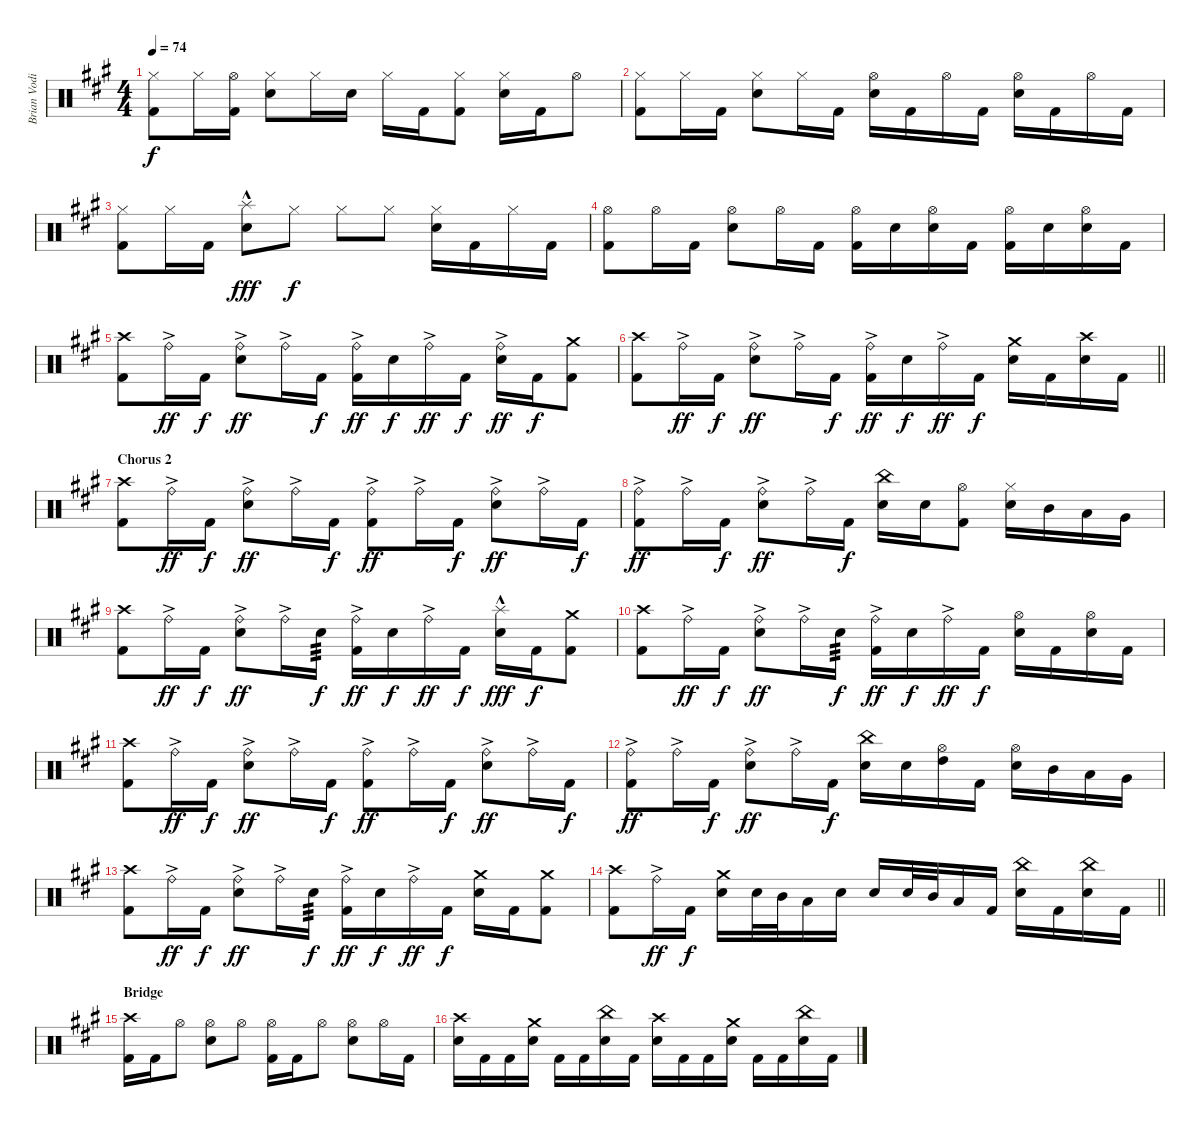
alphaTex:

\track ("Brian Vodinh" "Brian Vodi") {instrument percussion}
\staff {score}
\articulation defaults
\ts (4 4)
\tempo 74
\clef neutral
\ks f#minor
("Hi-Hat (closed)" "Kick (hit) 2").8{dy f} "Hi-Hat (closed)".16 ("Hi-Hat (open)" "Kick (hit) 2").16 ("Hi-Hat (closed)" "Electric Snare (hit)").8 "Hi-Hat (closed)".16 "Electric Snare (hit)".16 "Hi-Hat (closed)".16 "Kick (hit) 2".16 ("Hi-Hat (closed)" "Kick (hit) 2").8 ("Hi-Hat (closed)" "Electric Snare (hit)").16 "Kick (hit) 2".16 "Hi-Hat (open)".8 |
("Hi-Hat (closed)" "Kick (hit) 2").8 "Hi-Hat (closed)".16 "Kick (hit) 2".16 ("Hi-Hat (closed)" "Electric Snare (hit)").8 "Hi-Hat (closed)".16 "Kick (hit) 2".16 ("Hi-Hat (open)" "Electric Snare (hit)").16 "Kick (hit) 2".16 "Hi-Hat (open)".16 "Kick (hit) 2".16 ("Hi-Hat (open)" "Electric Snare (hit)").16 "Kick (hit) 2".16 "Hi-Hat (open)".16 "Kick (hit) 2".16 |
("Hi-Hat (closed)" "Kick (hit) 2").8 "Hi-Hat (closed)".16 "Kick (hit) 2".16 ("Splash (hit)"{hac} "Electric Snare (hit)").8{dy fff} "Hi-Hat (closed)".8{dy f} "Hi-Hat (closed)".8 "Hi-Hat (closed)".8 ("Hi-Hat (closed)" "Electric Snare (hit)").16 "Kick (hit) 2".16 "Hi-Hat (closed)".16 "Kick (hit) 2".16 |
("Hi-Hat (open)" "Kick (hit) 2").8 "Hi-Hat (open)".16 "Kick (hit) 2".16 ("Hi-Hat (open)" "Electric Snare (hit)").8 "Hi-Hat (open)".16 "Kick (hit) 2".16 ("Hi-Hat (open)" "Kick (hit) 2").16 "Electric Snare (hit)".16 ("Hi-Hat (open)" "Electric Snare (hit)").16 "Kick (hit) 2".16 ("Hi-Hat (open)" "Kick (hit) 2").16 "Electric Snare (hit)".16 ("Hi-Hat (open)" "Electric Snare (hit)").16 "Kick (hit) 2".16 |
("Crash high (hit)" "Kick (hit) 2").8 "Ride (bell)"{ac}.16{dy ff} "Kick (hit) 2".16{dy f} ("Ride (bell)"{ac} "Electric Snare (hit)").8{dy ff} "Ride (bell)"{ac}.16 "Kick (hit) 2".16{dy f} ("Ride (bell)"{ac} "Kick (hit) 2").16{dy ff} "Electric Snare (hit)".16{dy f} "Ride (bell)"{ac}.16{dy ff} "Kick (hit) 2".16{dy f} ("Ride (bell)"{ac} "Electric Snare (hit)").16{dy ff} "Kick (hit) 2".16{dy f} ("Crash medium (hit)" "Kick (hit) 2").8 |
\barLineRight lightlight
("Crash high (hit)" "Kick (hit) 2").8 "Ride (bell)"{ac}.16{dy ff} "Kick (hit) 2".16{dy f} ("Ride (bell)"{ac} "Electric Snare (hit)").8{dy ff} "Ride (bell)"{ac}.16 "Kick (hit) 2".16{dy f} ("Ride (bell)"{ac} "Kick (hit) 2").16{dy ff} "Electric Snare (hit)".16{dy f} "Ride (bell)"{ac}.16{dy ff} "Kick (hit) 2".16{dy f} ("Crash medium (hit)" "Electric Snare (hit)").16 "Kick (hit) 2".16 ("Crash high (hit)" "Electric Snare (hit)").16 "Kick (hit) 2".16 |
\section ("" "Chorus 2")
("Crash high (hit)" "Kick (hit) 2").8 "Ride (bell)"{ac}.16{dy ff} "Kick (hit) 2".16{dy f} ("Ride (bell)"{ac} "Electric Snare (hit)").8{dy ff} "Ride (bell)"{ac}.16 "Kick (hit) 2".16{dy f} ("Ride (bell)"{ac} "Kick (hit) 2").8{dy ff} "Ride (bell)"{ac}.16 "Kick (hit) 2".16{dy f} ("Ride (bell)"{ac} "Electric Snare (hit)").8{dy ff} "Ride (bell)"{ac}.16 "Kick (hit) 2".16{dy f} |
("Ride (bell)"{ac} "Kick (hit) 2").8{dy ff} "Ride (bell)"{ac}.16 "Kick (hit) 2".16{dy f} ("Ride (bell)"{ac} "Electric Snare (hit)").8{dy ff} "Ride (bell)"{ac}.16 "Kick (hit) 2".16{dy f} ("China (hit)" "Electric Snare (hit)").16 "Electric Snare (hit)".16 ("Hi-Hat (open)" "Kick (hit) 2").8 ("Hi-Hat (closed)" "Electric Snare (hit)").16 "Mid Tom (hit)".16 "Low Tom (hit)".16 "Very Low Tom (hit)".16 |
("Crash high (hit)" "Kick (hit) 2").8 "Ride (bell)"{ac}.16{dy ff} "Kick (hit) 2".16{dy f} ("Ride (bell)"{ac} "Electric Snare (hit)").8{dy ff} "Ride (bell)"{ac}.16 "Electric Snare (hit)".16{tp 3 dy f} ("Ride (bell)"{ac} "Kick (hit) 2").16{dy ff} "Electric Snare (hit)".16{dy f} "Ride (bell)"{ac}.16{dy ff} "Kick (hit) 2".16{dy f} ("Splash (hit)"{hac} "Electric Snare (hit)").16{dy fff} "Kick (hit) 2".16{dy f} ("Crash medium (hit)" "Kick (hit) 2").8 |
("Crash high (hit)" "Kick (hit) 2").8 "Ride (bell)"{ac}.16{dy ff} "Kick (hit) 2".16{dy f} ("Ride (bell)"{ac} "Electric Snare (hit)").8{dy ff} "Ride (bell)"{ac}.16 "Electric Snare (hit)".16{tp 3 dy f} ("Ride (bell)"{ac} "Kick (hit) 2").16{dy ff} "Electric Snare (hit)".16{dy f} "Ride (bell)"{ac}.16{dy ff} "Kick (hit) 2".16{dy f} ("Hi-Hat (open)" "Electric Snare (hit)").16 "Kick (hit) 2".16 ("Hi-Hat (open)" "Electric Snare (hit)").16 "Kick (hit) 2".16 |
("Crash high (hit)" "Kick (hit) 2").8 "Ride (bell)"{ac}.16{dy ff} "Kick (hit) 2".16{dy f} ("Ride (bell)"{ac} "Electric Snare (hit)").8{dy ff} "Ride (bell)"{ac}.16 "Kick (hit) 2".16{dy f} ("Ride (bell)"{ac} "Kick (hit) 2").8{dy ff} "Ride (bell)"{ac}.16 "Kick (hit) 2".16{dy f} ("Ride (bell)"{ac} "Electric Snare (hit)").8{dy ff} "Ride (bell)"{ac}.16 "Kick (hit) 2".16{dy f} |
("Ride (bell)"{ac} "Kick (hit) 2").8{dy ff} "Ride (bell)"{ac}.16 "Kick (hit) 2".16{dy f} ("Ride (bell)"{ac} "Electric Snare (hit)").8{dy ff} "Ride (bell)"{ac}.16 "Kick (hit) 2".16{dy f} ("China (hit)" "Electric Snare (hit)").16 "Electric Snare (hit)".16 ("Hi-Hat (open)" "High Tom (hit)").16 "Kick (hit) 2".16 ("Hi-Hat (open)" "Electric Snare (hit)").16 "Mid Tom (hit)".16 "Low Tom (hit)".16 "Very Low Tom (hit)".16 |
("Crash high (hit)" "Kick (hit) 2").8 "Ride (bell)"{ac}.16{dy ff} "Kick (hit) 2".16{dy f} ("Ride (bell)"{ac} "Electric Snare (hit)").8{dy ff} "Ride (bell)"{ac}.16 "Electric Snare (hit)".16{tp 3 dy f} ("Ride (bell)"{ac} "Kick (hit) 2").16{dy ff} "Electric Snare (hit)".16{dy f} "Ride (bell)"{ac}.16{dy ff} "Kick (hit) 2".16{dy f} ("Crash medium (hit)" "Electric Snare (hit)").16 "Kick (hit) 2".16 ("Crash medium (hit)" "Kick (hit) 2").8 |
\barLineRight lightlight
("Crash high (hit)" "Kick (hit) 2").8 "Ride (bell)"{ac}.16{dy ff} "Kick (hit) 2".16{dy f} ("Crash medium (hit)" "Electric Snare (hit)").16 "Electric Snare (hit)".32 "Mid Tom (hit)".32 "Low Tom (hit)".16 "Electric Snare (hit)".16 "Electric Snare (hit)".16 "Electric Snare (hit)".32 "Mid Tom (hit)".32 "Low Tom (hit)".16 "Kick (hit) 2".16 ("China (hit)" "Electric Snare (hit)").16 "Kick (hit) 2".16 ("China (hit)" "Electric Snare (hit)").16 "Kick (hit) 2".16 |
\section ("" "Bridge")
("Crash high (hit)" "Kick (hit) 2").16 "Kick (hit) 2".16 "Hi-Hat (open)".8 ("Hi-Hat (open)" "Electric Snare (hit)").8 "Hi-Hat (open)".8 ("Hi-Hat (open)" "Kick (hit) 2").16 "Kick (hit) 2".16 "Hi-Hat (open)".8 ("Hi-Hat (open)" "Electric Snare (hit)").8 "Hi-Hat (open)".16 "Kick (hit) 2".16 |
("Crash high (hit)" "Electric Snare (hit)").16 "Kick (hit) 2".16 "Kick (hit) 2".16 ("Crash medium (hit)" "Electric Snare (hit)").16 "Kick (hit) 2".16 "Kick (hit) 2".16 ("China (hit)" "Electric Snare (hit)").16 "Kick (hit) 2".16 ("Crash high (hit)" "Electric Snare (hit)").16 "Kick (hit) 2".16 "Kick (hit) 2".16 ("Crash medium (hit)" "Electric Snare (hit)").16 "Kick (hit) 2".16 "Kick (hit) 2".16 ("China (hit)" "Electric Snare (hit)").16 "Kick (hit) 2".16
